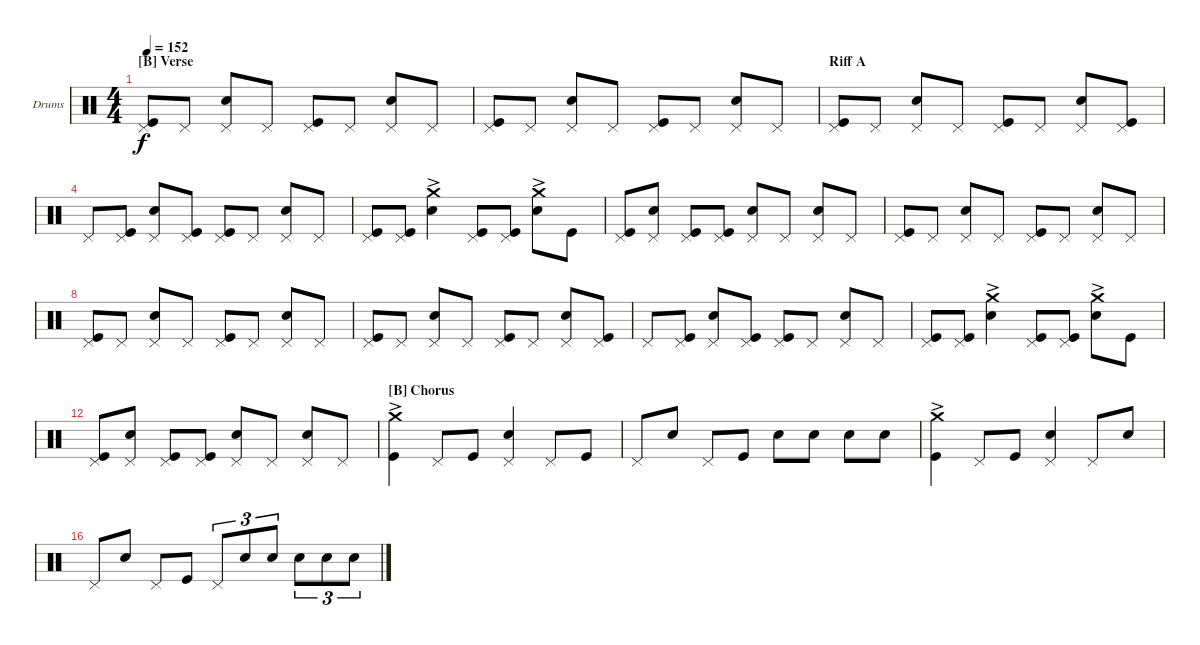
\bracketExtendMode nobrackets
\firstSystemTrackNameOrientation horizontal
\otherSystemsTrackNameOrientation horizontal
\defaultBarNumberDisplay FirstOfSystem
\track ("Drumkit" "Drums") {instrument percussion}
\staff {score}
\articulation defaults
\ts (4 4)
\section ("B" "Verse")
\tempo 152
\clef neutral
\ks c
("Pedal Hi-Hat (hit)" "Kick (hit)").8{dy f} "Pedal Hi-Hat (hit)".8 ("Pedal Hi-Hat (hit)" "Snare (hit) 2").8 "Pedal Hi-Hat (hit)".8 ("Pedal Hi-Hat (hit)" "Kick (hit)").8 "Pedal Hi-Hat (hit)".8 ("Pedal Hi-Hat (hit)" "Snare (hit) 2").8 "Pedal Hi-Hat (hit)".8 |
("Pedal Hi-Hat (hit)" "Kick (hit)").8 "Pedal Hi-Hat (hit)".8 ("Pedal Hi-Hat (hit)" "Snare (hit) 2").8 "Pedal Hi-Hat (hit)".8 ("Pedal Hi-Hat (hit)" "Kick (hit)").8 "Pedal Hi-Hat (hit)".8 ("Pedal Hi-Hat (hit)" "Snare (hit) 2").8 "Pedal Hi-Hat (hit)".8 |
\section ("" "Riff A")
("Pedal Hi-Hat (hit)" "Kick (hit)").8 "Pedal Hi-Hat (hit)".8 ("Pedal Hi-Hat (hit)" "Snare (hit) 2").8 "Pedal Hi-Hat (hit)".8 ("Pedal Hi-Hat (hit)" "Kick (hit)").8 "Pedal Hi-Hat (hit)".8 ("Pedal Hi-Hat (hit)" "Snare (hit) 2").8 ("Pedal Hi-Hat (hit)" "Kick (hit)").8 |
"Pedal Hi-Hat (hit)".8 ("Pedal Hi-Hat (hit)" "Kick (hit)").8 ("Pedal Hi-Hat (hit)" "Snare (hit) 2").8 ("Pedal Hi-Hat (hit)" "Kick (hit)").8 ("Pedal Hi-Hat (hit)" "Kick (hit)").8 "Pedal Hi-Hat (hit)".8 ("Pedal Hi-Hat (hit)" "Snare (hit) 2").8 "Pedal Hi-Hat (hit)".8 |
("Pedal Hi-Hat (hit)" "Kick (hit)").8 ("Pedal Hi-Hat (hit)" "Kick (hit)").8 ("Crash medium (hit)"{ac} "Snare (hit) 2").4 ("Pedal Hi-Hat (hit)" "Kick (hit)").8 ("Pedal Hi-Hat (hit)" "Kick (hit)").8 ("Crash medium (hit)"{ac} "Snare (hit) 2").8 "Kick (hit)".8 |
("Pedal Hi-Hat (hit)" "Kick (hit)").8 ("Pedal Hi-Hat (hit)" "Snare (hit) 2").8 ("Pedal Hi-Hat (hit)" "Kick (hit)").8 ("Pedal Hi-Hat (hit)" "Kick (hit)").8 ("Pedal Hi-Hat (hit)" "Snare (hit) 2").8 "Pedal Hi-Hat (hit)".8 ("Pedal Hi-Hat (hit)" "Snare (hit) 2").8 "Pedal Hi-Hat (hit)".8 |
("Pedal Hi-Hat (hit)" "Kick (hit)").8 "Pedal Hi-Hat (hit)".8 ("Pedal Hi-Hat (hit)" "Snare (hit) 2").8 "Pedal Hi-Hat (hit)".8 ("Pedal Hi-Hat (hit)" "Kick (hit)").8 "Pedal Hi-Hat (hit)".8 ("Pedal Hi-Hat (hit)" "Snare (hit) 2").8 "Pedal Hi-Hat (hit)".8 |
("Pedal Hi-Hat (hit)" "Kick (hit)").8 "Pedal Hi-Hat (hit)".8 ("Pedal Hi-Hat (hit)" "Snare (hit) 2").8 "Pedal Hi-Hat (hit)".8 ("Pedal Hi-Hat (hit)" "Kick (hit)").8 "Pedal Hi-Hat (hit)".8 ("Pedal Hi-Hat (hit)" "Snare (hit) 2").8 "Pedal Hi-Hat (hit)".8 |
("Pedal Hi-Hat (hit)" "Kick (hit)").8 "Pedal Hi-Hat (hit)".8 ("Pedal Hi-Hat (hit)" "Snare (hit) 2").8 "Pedal Hi-Hat (hit)".8 ("Pedal Hi-Hat (hit)" "Kick (hit)").8 "Pedal Hi-Hat (hit)".8 ("Pedal Hi-Hat (hit)" "Snare (hit) 2").8 ("Pedal Hi-Hat (hit)" "Kick (hit)").8 |
"Pedal Hi-Hat (hit)".8 ("Pedal Hi-Hat (hit)" "Kick (hit)").8 ("Pedal Hi-Hat (hit)" "Snare (hit) 2").8 ("Pedal Hi-Hat (hit)" "Kick (hit)").8 ("Pedal Hi-Hat (hit)" "Kick (hit)").8 "Pedal Hi-Hat (hit)".8 ("Pedal Hi-Hat (hit)" "Snare (hit) 2").8 "Pedal Hi-Hat (hit)".8 |
("Pedal Hi-Hat (hit)" "Kick (hit)").8 ("Pedal Hi-Hat (hit)" "Kick (hit)").8 ("Crash medium (hit)"{ac} "Snare (hit) 2").4 ("Pedal Hi-Hat (hit)" "Kick (hit)").8 ("Pedal Hi-Hat (hit)" "Kick (hit)").8 ("Crash medium (hit)"{ac} "Snare (hit) 2").8 "Kick (hit)".8 |
("Pedal Hi-Hat (hit)" "Kick (hit)").8 ("Pedal Hi-Hat (hit)" "Snare (hit) 2").8 ("Pedal Hi-Hat (hit)" "Kick (hit)").8 ("Pedal Hi-Hat (hit)" "Kick (hit)").8 ("Pedal Hi-Hat (hit)" "Snare (hit) 2").8 "Pedal Hi-Hat (hit)".8 ("Pedal Hi-Hat (hit)" "Snare (hit) 2").8 "Pedal Hi-Hat (hit)".8 |
\section ("B" "Chorus")
("Crash medium (hit)"{ac} "Kick (hit)").4 "Pedal Hi-Hat (hit)".8 "Kick (hit)".8 ("Pedal Hi-Hat (hit)" "Snare (hit) 2").4 "Pedal Hi-Hat (hit)".8 "Kick (hit)".8 |
"Pedal Hi-Hat (hit)".8 "Snare (hit) 2".8 "Pedal Hi-Hat (hit)".8 "Kick (hit)".8 "Snare (hit) 2".8 "Snare (hit) 2".8 "Snare (hit) 2".8 "Snare (hit) 2".8 |
("Crash medium (hit)"{ac} "Kick (hit)").4 "Pedal Hi-Hat (hit)".8 "Kick (hit)".8 ("Pedal Hi-Hat (hit)" "Snare (hit) 2").4 "Pedal Hi-Hat (hit)".8 "Snare (hit) 2".8 |
"Pedal Hi-Hat (hit)".8 "Snare (hit) 2".8 "Pedal Hi-Hat (hit)".8 "Kick (hit)".8 "Pedal Hi-Hat (hit)".8{tu (3 2)} "Snare (hit) 2".8{tu (3 2)} "Snare (hit) 2".8{tu (3 2)} "Snare (hit) 2".8{tu (3 2)} "Snare (hit) 2".8{tu (3 2)} "Snare (hit) 2".8{tu (3 2)}
